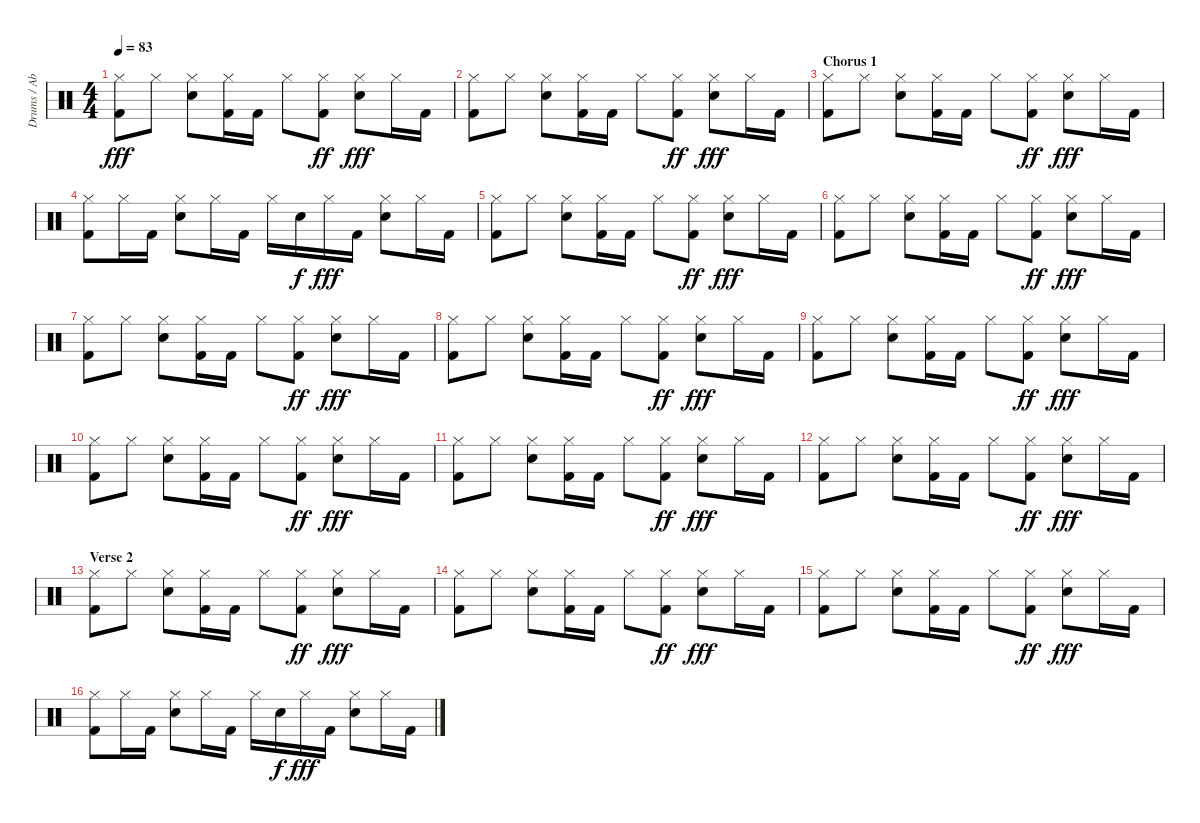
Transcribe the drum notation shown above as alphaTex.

\track ("Drums / Abe Cunningham" "Drums / Ab") {instrument percussion}
\staff {score}
\articulation defaults
\ts (4 4)
\tempo 83
\clef neutral
\ks c
("Hi-Hat (closed)" "Kick (hit) 2").8{dy fff} "Hi-Hat (closed)".8 ("Hi-Hat (closed)" "Electric Snare (hit)").8 ("Hi-Hat (closed)" "Kick (hit) 2").16 "Kick (hit) 2".16 "Hi-Hat (closed)".8 ("Hi-Hat (closed)" "Kick (hit) 2").8{dy ff} ("Hi-Hat (closed)" "Electric Snare (hit)").8{dy fff} "Hi-Hat (closed)".16 "Kick (hit) 2".16 |
("Hi-Hat (closed)" "Kick (hit) 2").8 "Hi-Hat (closed)".8 ("Hi-Hat (closed)" "Electric Snare (hit)").8 ("Hi-Hat (closed)" "Kick (hit) 2").16 "Kick (hit) 2".16 "Hi-Hat (closed)".8 ("Hi-Hat (closed)" "Kick (hit) 2").8{dy ff} ("Hi-Hat (closed)" "Electric Snare (hit)").8{dy fff} "Hi-Hat (closed)".16 "Kick (hit) 2".16 |
\section ("" "Chorus 1")
("Hi-Hat (closed)" "Kick (hit) 2").8 "Hi-Hat (closed)".8 ("Hi-Hat (closed)" "Electric Snare (hit)").8 ("Hi-Hat (closed)" "Kick (hit) 2").16 "Kick (hit) 2".16 "Hi-Hat (closed)".8 ("Hi-Hat (closed)" "Kick (hit) 2").8{dy ff} ("Hi-Hat (closed)" "Electric Snare (hit)").8{dy fff} "Hi-Hat (closed)".16 "Kick (hit) 2".16 |
("Hi-Hat (closed)" "Kick (hit) 2").8 "Hi-Hat (closed)".16 "Kick (hit) 2".16 ("Hi-Hat (closed)" "Electric Snare (hit)").8 "Hi-Hat (closed)".16 "Kick (hit) 2".16 "Hi-Hat (closed)".16 "Electric Snare (hit)".16{dy f} "Hi-Hat (closed)".16{dy fff} "Kick (hit) 2".16 ("Hi-Hat (closed)" "Electric Snare (hit)").8 "Hi-Hat (closed)".16 "Kick (hit) 2".16 |
("Hi-Hat (closed)" "Kick (hit) 2").8 "Hi-Hat (closed)".8 ("Hi-Hat (closed)" "Electric Snare (hit)").8 ("Hi-Hat (closed)" "Kick (hit) 2").16 "Kick (hit) 2".16 "Hi-Hat (closed)".8 ("Hi-Hat (closed)" "Kick (hit) 2").8{dy ff} ("Hi-Hat (closed)" "Electric Snare (hit)").8{dy fff} "Hi-Hat (closed)".16 "Kick (hit) 2".16 |
("Hi-Hat (closed)" "Kick (hit) 2").8 "Hi-Hat (closed)".8 ("Hi-Hat (closed)" "Electric Snare (hit)").8 ("Hi-Hat (closed)" "Kick (hit) 2").16 "Kick (hit) 2".16 "Hi-Hat (closed)".8 ("Hi-Hat (closed)" "Kick (hit) 2").8{dy ff} ("Hi-Hat (closed)" "Electric Snare (hit)").8{dy fff} "Hi-Hat (closed)".16 "Kick (hit) 2".16 |
("Hi-Hat (closed)" "Kick (hit) 2").8 "Hi-Hat (closed)".8 ("Hi-Hat (closed)" "Electric Snare (hit)").8 ("Hi-Hat (closed)" "Kick (hit) 2").16 "Kick (hit) 2".16 "Hi-Hat (closed)".8 ("Hi-Hat (closed)" "Kick (hit) 2").8{dy ff} ("Hi-Hat (closed)" "Electric Snare (hit)").8{dy fff} "Hi-Hat (closed)".16 "Kick (hit) 2".16 |
("Hi-Hat (closed)" "Kick (hit) 2").8 "Hi-Hat (closed)".8 ("Hi-Hat (closed)" "Electric Snare (hit)").8 ("Hi-Hat (closed)" "Kick (hit) 2").16 "Kick (hit) 2".16 "Hi-Hat (closed)".8 ("Hi-Hat (closed)" "Kick (hit) 2").8{dy ff} ("Hi-Hat (closed)" "Electric Snare (hit)").8{dy fff} "Hi-Hat (closed)".16 "Kick (hit) 2".16 |
("Hi-Hat (closed)" "Kick (hit) 2").8 "Hi-Hat (closed)".8 ("Hi-Hat (closed)" "Electric Snare (hit)").8 ("Hi-Hat (closed)" "Kick (hit) 2").16 "Kick (hit) 2".16 "Hi-Hat (closed)".8 ("Hi-Hat (closed)" "Kick (hit) 2").8{dy ff} ("Hi-Hat (closed)" "Electric Snare (hit)").8{dy fff} "Hi-Hat (closed)".16 "Kick (hit) 2".16 |
("Hi-Hat (closed)" "Kick (hit) 2").8 "Hi-Hat (closed)".8 ("Hi-Hat (closed)" "Electric Snare (hit)").8 ("Hi-Hat (closed)" "Kick (hit) 2").16 "Kick (hit) 2".16 "Hi-Hat (closed)".8 ("Hi-Hat (closed)" "Kick (hit) 2").8{dy ff} ("Hi-Hat (closed)" "Electric Snare (hit)").8{dy fff} "Hi-Hat (closed)".16 "Kick (hit) 2".16 |
("Hi-Hat (closed)" "Kick (hit) 2").8 "Hi-Hat (closed)".8 ("Hi-Hat (closed)" "Electric Snare (hit)").8 ("Hi-Hat (closed)" "Kick (hit) 2").16 "Kick (hit) 2".16 "Hi-Hat (closed)".8 ("Hi-Hat (closed)" "Kick (hit) 2").8{dy ff} ("Hi-Hat (closed)" "Electric Snare (hit)").8{dy fff} "Hi-Hat (closed)".16 "Kick (hit) 2".16 |
("Hi-Hat (closed)" "Kick (hit) 2").8 "Hi-Hat (closed)".8 ("Hi-Hat (closed)" "Electric Snare (hit)").8 ("Hi-Hat (closed)" "Kick (hit) 2").16 "Kick (hit) 2".16 "Hi-Hat (closed)".8 ("Hi-Hat (closed)" "Kick (hit) 2").8{dy ff} ("Hi-Hat (closed)" "Electric Snare (hit)").8{dy fff} "Hi-Hat (closed)".16 "Kick (hit) 2".16 |
\section ("" "Verse 2")
("Hi-Hat (closed)" "Kick (hit) 2").8 "Hi-Hat (closed)".8 ("Hi-Hat (closed)" "Electric Snare (hit)").8 ("Hi-Hat (closed)" "Kick (hit) 2").16 "Kick (hit) 2".16 "Hi-Hat (closed)".8 ("Hi-Hat (closed)" "Kick (hit) 2").8{dy ff} ("Hi-Hat (closed)" "Electric Snare (hit)").8{dy fff} "Hi-Hat (closed)".16 "Kick (hit) 2".16 |
("Hi-Hat (closed)" "Kick (hit) 2").8 "Hi-Hat (closed)".8 ("Hi-Hat (closed)" "Electric Snare (hit)").8 ("Hi-Hat (closed)" "Kick (hit) 2").16 "Kick (hit) 2".16 "Hi-Hat (closed)".8 ("Hi-Hat (closed)" "Kick (hit) 2").8{dy ff} ("Hi-Hat (closed)" "Electric Snare (hit)").8{dy fff} "Hi-Hat (closed)".16 "Kick (hit) 2".16 |
("Hi-Hat (closed)" "Kick (hit) 2").8 "Hi-Hat (closed)".8 ("Hi-Hat (closed)" "Electric Snare (hit)").8 ("Hi-Hat (closed)" "Kick (hit) 2").16 "Kick (hit) 2".16 "Hi-Hat (closed)".8 ("Hi-Hat (closed)" "Kick (hit) 2").8{dy ff} ("Hi-Hat (closed)" "Electric Snare (hit)").8{dy fff} "Hi-Hat (closed)".16 "Kick (hit) 2".16 |
("Hi-Hat (closed)" "Kick (hit) 2").8 "Hi-Hat (closed)".16 "Kick (hit) 2".16 ("Hi-Hat (closed)" "Electric Snare (hit)").8 "Hi-Hat (closed)".16 "Kick (hit) 2".16 "Hi-Hat (closed)".16 "Electric Snare (hit)".16{dy f} "Hi-Hat (closed)".16{dy fff} "Kick (hit) 2".16 ("Hi-Hat (closed)" "Electric Snare (hit)").8 "Hi-Hat (closed)".16 "Kick (hit) 2".16
